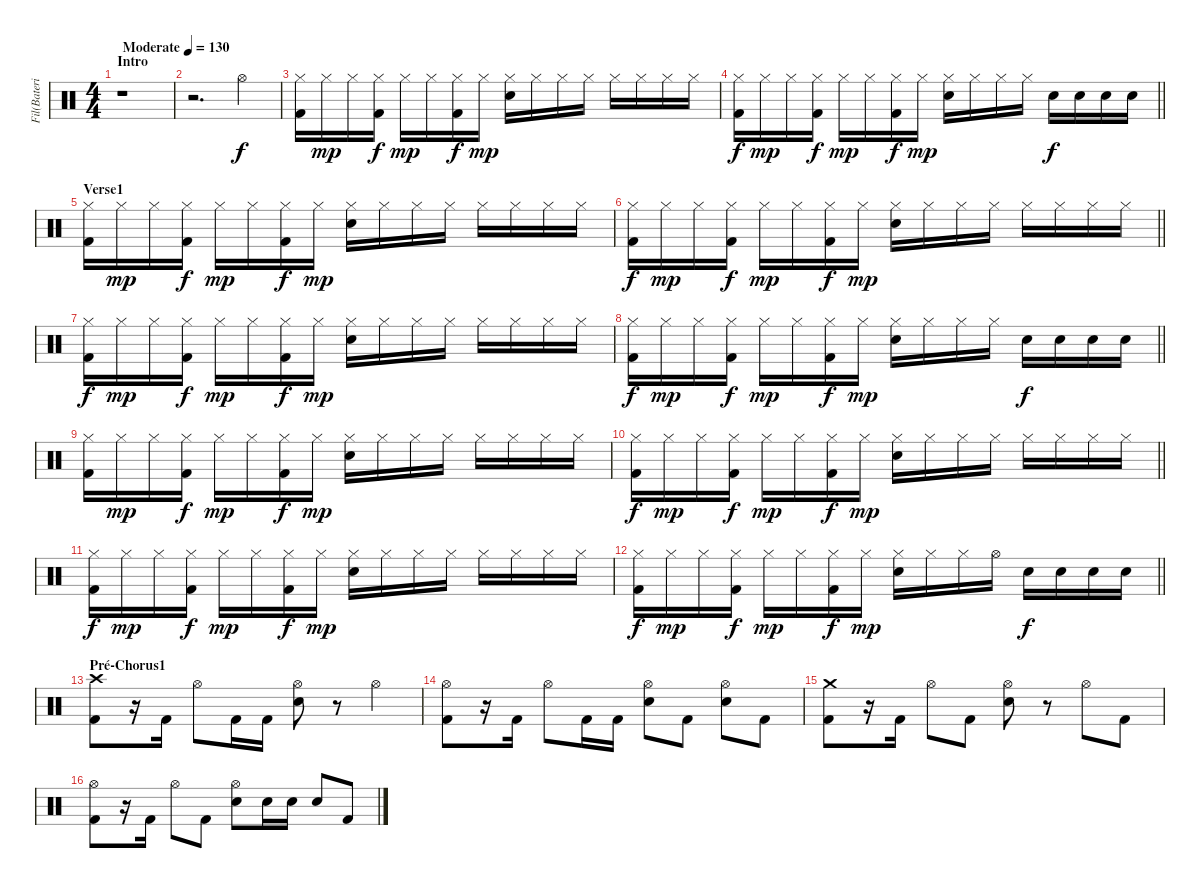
\track ("Fil(Bateria)" "Fil(Bateri") {instrument percussion}
\staff {score}
\articulation defaults
\ts (4 4)
\section ("" "Intro")
\tempo (130 "Moderate")
\clef neutral
\ks c
r.1{dy f} |
r.2{d} "Hi-Hat (open)".4 |
("Hi-Hat (closed)" "Kick (hit) 2").16 "Hi-Hat (closed)".16{dy mp} "Hi-Hat (closed)".16 ("Hi-Hat (closed)" "Kick (hit) 2").16{dy f} "Hi-Hat (closed)".16{dy mp} "Hi-Hat (closed)".16 ("Hi-Hat (closed)" "Kick (hit) 2").16{dy f} "Hi-Hat (closed)".16{dy mp} ("Hi-Hat (closed)" "Electric Snare (hit)").16 "Hi-Hat (closed)".16 "Hi-Hat (closed)".16 "Hi-Hat (closed)".16 "Hi-Hat (closed)".16 "Hi-Hat (closed)".16 "Hi-Hat (closed)".16 "Hi-Hat (closed)".16 |
\barLineRight lightlight
("Hi-Hat (closed)" "Kick (hit) 2").16{dy f} "Hi-Hat (closed)".16{dy mp} "Hi-Hat (closed)".16 ("Hi-Hat (closed)" "Kick (hit) 2").16{dy f} "Hi-Hat (closed)".16{dy mp} "Hi-Hat (closed)".16 ("Hi-Hat (closed)" "Kick (hit) 2").16{dy f} "Hi-Hat (closed)".16{dy mp} ("Hi-Hat (closed)" "Electric Snare (hit)").16 "Hi-Hat (closed)".16 "Hi-Hat (closed)".16 "Hi-Hat (closed)".16 "Electric Snare (hit)".16{dy f} "Electric Snare (hit)".16 "Electric Snare (hit)".16 "Electric Snare (hit)".16 |
\section ("" "Verse1")
("Hi-Hat (closed)" "Kick (hit) 2").16 "Hi-Hat (closed)".16{dy mp} "Hi-Hat (closed)".16 ("Hi-Hat (closed)" "Kick (hit) 2").16{dy f} "Hi-Hat (closed)".16{dy mp} "Hi-Hat (closed)".16 ("Hi-Hat (closed)" "Kick (hit) 2").16{dy f} "Hi-Hat (closed)".16{dy mp} ("Hi-Hat (closed)" "Electric Snare (hit)").16 "Hi-Hat (closed)".16 "Hi-Hat (closed)".16 "Hi-Hat (closed)".16 "Hi-Hat (closed)".16 "Hi-Hat (closed)".16 "Hi-Hat (closed)".16 "Hi-Hat (closed)".16 |
\barLineRight lightlight
("Hi-Hat (closed)" "Kick (hit) 2").16{dy f} "Hi-Hat (closed)".16{dy mp} "Hi-Hat (closed)".16 ("Hi-Hat (closed)" "Kick (hit) 2").16{dy f} "Hi-Hat (closed)".16{dy mp} "Hi-Hat (closed)".16 ("Hi-Hat (closed)" "Kick (hit) 2").16{dy f} "Hi-Hat (closed)".16{dy mp} ("Hi-Hat (closed)" "Electric Snare (hit)").16 "Hi-Hat (closed)".16 "Hi-Hat (closed)".16 "Hi-Hat (closed)".16 "Hi-Hat (closed)".16 "Hi-Hat (closed)".16 "Hi-Hat (closed)".16 "Hi-Hat (closed)".16 |
("Hi-Hat (closed)" "Kick (hit) 2").16{dy f} "Hi-Hat (closed)".16{dy mp} "Hi-Hat (closed)".16 ("Hi-Hat (closed)" "Kick (hit) 2").16{dy f} "Hi-Hat (closed)".16{dy mp} "Hi-Hat (closed)".16 ("Hi-Hat (closed)" "Kick (hit) 2").16{dy f} "Hi-Hat (closed)".16{dy mp} ("Hi-Hat (closed)" "Electric Snare (hit)").16 "Hi-Hat (closed)".16 "Hi-Hat (closed)".16 "Hi-Hat (closed)".16 "Hi-Hat (closed)".16 "Hi-Hat (closed)".16 "Hi-Hat (closed)".16 "Hi-Hat (closed)".16 |
\barLineRight lightlight
("Hi-Hat (closed)" "Kick (hit) 2").16{dy f} "Hi-Hat (closed)".16{dy mp} "Hi-Hat (closed)".16 ("Hi-Hat (closed)" "Kick (hit) 2").16{dy f} "Hi-Hat (closed)".16{dy mp} "Hi-Hat (closed)".16 ("Hi-Hat (closed)" "Kick (hit) 2").16{dy f} "Hi-Hat (closed)".16{dy mp} ("Hi-Hat (closed)" "Electric Snare (hit)").16 "Hi-Hat (closed)".16 "Hi-Hat (closed)".16 "Hi-Hat (closed)".16 "Electric Snare (hit)".16{dy f} "Electric Snare (hit)".16 "Electric Snare (hit)".16 "Electric Snare (hit)".16 |
("Hi-Hat (closed)" "Kick (hit) 2").16 "Hi-Hat (closed)".16{dy mp} "Hi-Hat (closed)".16 ("Hi-Hat (closed)" "Kick (hit) 2").16{dy f} "Hi-Hat (closed)".16{dy mp} "Hi-Hat (closed)".16 ("Hi-Hat (closed)" "Kick (hit) 2").16{dy f} "Hi-Hat (closed)".16{dy mp} ("Hi-Hat (closed)" "Electric Snare (hit)").16 "Hi-Hat (closed)".16 "Hi-Hat (closed)".16 "Hi-Hat (closed)".16 "Hi-Hat (closed)".16 "Hi-Hat (closed)".16 "Hi-Hat (closed)".16 "Hi-Hat (closed)".16 |
\barLineRight lightlight
("Hi-Hat (closed)" "Kick (hit) 2").16{dy f} "Hi-Hat (closed)".16{dy mp} "Hi-Hat (closed)".16 ("Hi-Hat (closed)" "Kick (hit) 2").16{dy f} "Hi-Hat (closed)".16{dy mp} "Hi-Hat (closed)".16 ("Hi-Hat (closed)" "Kick (hit) 2").16{dy f} "Hi-Hat (closed)".16{dy mp} ("Hi-Hat (closed)" "Electric Snare (hit)").16 "Hi-Hat (closed)".16 "Hi-Hat (closed)".16 "Hi-Hat (closed)".16 "Hi-Hat (closed)".16 "Hi-Hat (closed)".16 "Hi-Hat (closed)".16 "Hi-Hat (closed)".16 |
("Hi-Hat (closed)" "Kick (hit) 2").16{dy f} "Hi-Hat (closed)".16{dy mp} "Hi-Hat (closed)".16 ("Hi-Hat (closed)" "Kick (hit) 2").16{dy f} "Hi-Hat (closed)".16{dy mp} "Hi-Hat (closed)".16 ("Hi-Hat (closed)" "Kick (hit) 2").16{dy f} "Hi-Hat (closed)".16{dy mp} ("Hi-Hat (closed)" "Electric Snare (hit)").16 "Hi-Hat (closed)".16 "Hi-Hat (closed)".16 "Hi-Hat (closed)".16 "Hi-Hat (closed)".16 "Hi-Hat (closed)".16 "Hi-Hat (closed)".16 "Hi-Hat (closed)".16 |
\barLineRight lightlight
("Hi-Hat (closed)" "Kick (hit) 2").16{dy f} "Hi-Hat (closed)".16{dy mp} "Hi-Hat (closed)".16 ("Hi-Hat (closed)" "Kick (hit) 2").16{dy f} "Hi-Hat (closed)".16{dy mp} "Hi-Hat (closed)".16 ("Hi-Hat (closed)" "Kick (hit) 2").16{dy f} "Hi-Hat (closed)".16{dy mp} ("Hi-Hat (closed)" "Electric Snare (hit)").16 "Hi-Hat (closed)".16 "Hi-Hat (closed)".16 "Hi-Hat (open)".16 "Electric Snare (hit)".16{dy f} "Electric Snare (hit)".16 "Electric Snare (hit)".16 "Electric Snare (hit)".16 |
\section ("" "Pré-Chorus1")
("Crash high (hit)" "Kick (hit) 2").8 r.16 "Kick (hit) 2".16 "Hi-Hat (open)".8 "Kick (hit) 2".16 "Kick (hit) 2".16 ("Hi-Hat (open)" "Electric Snare (hit)").8 r.8 "Hi-Hat (open)".4 |
("Hi-Hat (open)" "Kick (hit) 2").8 r.16 "Kick (hit) 2".16 "Hi-Hat (open)".8 "Kick (hit) 2".16 "Kick (hit) 2".16 ("Hi-Hat (open)" "Electric Snare (hit)").8 "Kick (hit) 2".8 ("Hi-Hat (open)" "Electric Snare (hit)").8 "Kick (hit) 2".8 |
("Crash medium (hit)" "Kick (hit) 2").8 r.16 "Kick (hit) 2".16 "Hi-Hat (open)".8 "Kick (hit) 2".8 ("Hi-Hat (open)" "Electric Snare (hit)").8 r.8 "Hi-Hat (open)".8 "Kick (hit) 2".8 |
("Hi-Hat (open)" "Kick (hit) 2").8 r.16 "Kick (hit) 2".16 "Hi-Hat (open)".8 "Kick (hit) 2".8 ("Hi-Hat (open)" "Electric Snare (hit)").8 "Electric Snare (hit)".16 "Electric Snare (hit)".16 "Electric Snare (hit)".8 "Kick (hit) 2".8
